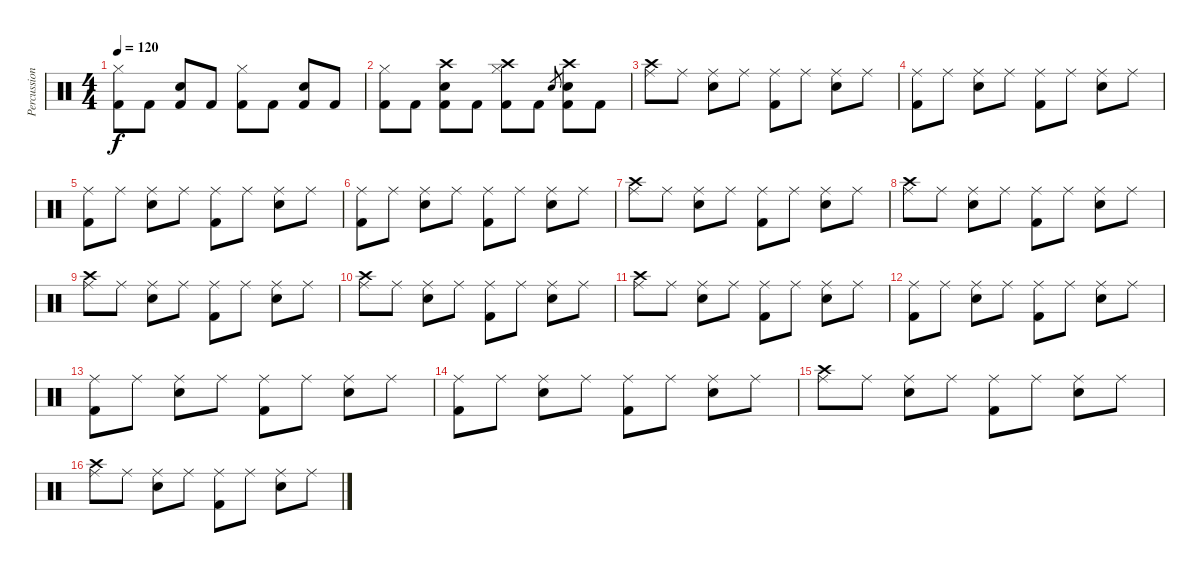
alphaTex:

\track ("Percussions" "Percussion") {instrument percussion}
\staff {score}
\articulation defaults
\ts (4 4)
\tempo 120
\clef neutral
\ks c
("Kick (hit) 2" "Hi-Hat (closed)").8{dy f} "Kick (hit) 2".8 ("Kick (hit) 2" "Electric Snare (hit)").8 "Kick (hit) 2".8 ("Kick (hit) 2" "Hi-Hat (closed)").8 "Kick (hit) 2".8 ("Kick (hit) 2" "Electric Snare (hit)").8 "Kick (hit) 2".8 |
("Kick (hit) 2" "Hi-Hat (closed)").8 "Kick (hit) 2".8 ("Kick (hit) 2" "Crash high (hit)" "Electric Snare (hit)").8 "Kick (hit) 2".8 ("Kick (hit) 2" "Crash high (hit)" "Hi-Hat (closed)").8 "Kick (hit) 2".8 "Electric Snare (hit)".8{gr} ("Kick (hit) 2" "Crash high (hit)" "Electric Snare (hit)").8 "Kick (hit) 2".8 |
("Ride (middle)" "Crash high (hit)").8 "Ride (middle)".8 ("Ride (middle)" "Electric Snare (hit)").8 "Ride (middle)".8 ("Ride (middle)" "Kick (hit) 2").8 "Ride (middle)".8 ("Ride (middle)" "Electric Snare (hit)").8 "Ride (middle)".8 |
("Ride (middle)" "Kick (hit) 2").8 "Ride (middle)".8 ("Ride (middle)" "Electric Snare (hit)").8 "Ride (middle)".8 ("Ride (middle)" "Kick (hit) 2").8 "Ride (middle)".8 ("Ride (middle)" "Electric Snare (hit)").8 "Ride (middle)".8 |
("Ride (middle)" "Kick (hit) 2").8 "Ride (middle)".8 ("Ride (middle)" "Electric Snare (hit)").8 "Ride (middle)".8 ("Ride (middle)" "Kick (hit) 2").8 "Ride (middle)".8 ("Ride (middle)" "Electric Snare (hit)").8 "Ride (middle)".8 |
("Ride (middle)" "Kick (hit) 2").8 "Ride (middle)".8 ("Ride (middle)" "Electric Snare (hit)").8 "Ride (middle)".8 ("Ride (middle)" "Kick (hit) 2").8 "Ride (middle)".8 ("Ride (middle)" "Electric Snare (hit)").8 "Ride (middle)".8 |
("Ride (middle)" "Crash high (hit)").8 "Ride (middle)".8 ("Ride (middle)" "Electric Snare (hit)").8 "Ride (middle)".8 ("Ride (middle)" "Kick (hit) 2").8 "Ride (middle)".8 ("Ride (middle)" "Electric Snare (hit)").8 "Ride (middle)".8 |
("Ride (middle)" "Crash high (hit)").8 "Ride (middle)".8 ("Ride (middle)" "Electric Snare (hit)").8 "Ride (middle)".8 ("Ride (middle)" "Kick (hit) 2").8 "Ride (middle)".8 ("Ride (middle)" "Electric Snare (hit)").8 "Ride (middle)".8 |
("Ride (middle)" "Crash high (hit)").8 "Ride (middle)".8 ("Ride (middle)" "Electric Snare (hit)").8 "Ride (middle)".8 ("Ride (middle)" "Kick (hit) 2").8 "Ride (middle)".8 ("Ride (middle)" "Electric Snare (hit)").8 "Ride (middle)".8 |
("Ride (middle)" "Crash high (hit)").8 "Ride (middle)".8 ("Ride (middle)" "Electric Snare (hit)").8 "Ride (middle)".8 ("Ride (middle)" "Kick (hit) 2").8 "Ride (middle)".8 ("Ride (middle)" "Electric Snare (hit)").8 "Ride (middle)".8 |
("Ride (middle)" "Crash high (hit)").8 "Ride (middle)".8 ("Ride (middle)" "Electric Snare (hit)").8 "Ride (middle)".8 ("Ride (middle)" "Kick (hit) 2").8 "Ride (middle)".8 ("Ride (middle)" "Electric Snare (hit)").8 "Ride (middle)".8 |
("Ride (middle)" "Kick (hit) 2").8 "Ride (middle)".8 ("Ride (middle)" "Electric Snare (hit)").8 "Ride (middle)".8 ("Ride (middle)" "Kick (hit) 2").8 "Ride (middle)".8 ("Ride (middle)" "Electric Snare (hit)").8 "Ride (middle)".8 |
("Ride (middle)" "Kick (hit) 2").8 "Ride (middle)".8 ("Ride (middle)" "Electric Snare (hit)").8 "Ride (middle)".8 ("Ride (middle)" "Kick (hit) 2").8 "Ride (middle)".8 ("Ride (middle)" "Electric Snare (hit)").8 "Ride (middle)".8 |
("Ride (middle)" "Kick (hit) 2").8 "Ride (middle)".8 ("Ride (middle)" "Electric Snare (hit)").8 "Ride (middle)".8 ("Ride (middle)" "Kick (hit) 2").8 "Ride (middle)".8 ("Ride (middle)" "Electric Snare (hit)").8 "Ride (middle)".8 |
("Ride (middle)" "Crash high (hit)").8 "Ride (middle)".8 ("Ride (middle)" "Electric Snare (hit)").8 "Ride (middle)".8 ("Ride (middle)" "Kick (hit) 2").8 "Ride (middle)".8 ("Ride (middle)" "Electric Snare (hit)").8 "Ride (middle)".8 |
("Ride (middle)" "Crash high (hit)").8 "Ride (middle)".8 ("Ride (middle)" "Electric Snare (hit)").8 "Ride (middle)".8 ("Ride (middle)" "Kick (hit) 2").8 "Ride (middle)".8 ("Ride (middle)" "Electric Snare (hit)").8 "Ride (middle)".8
